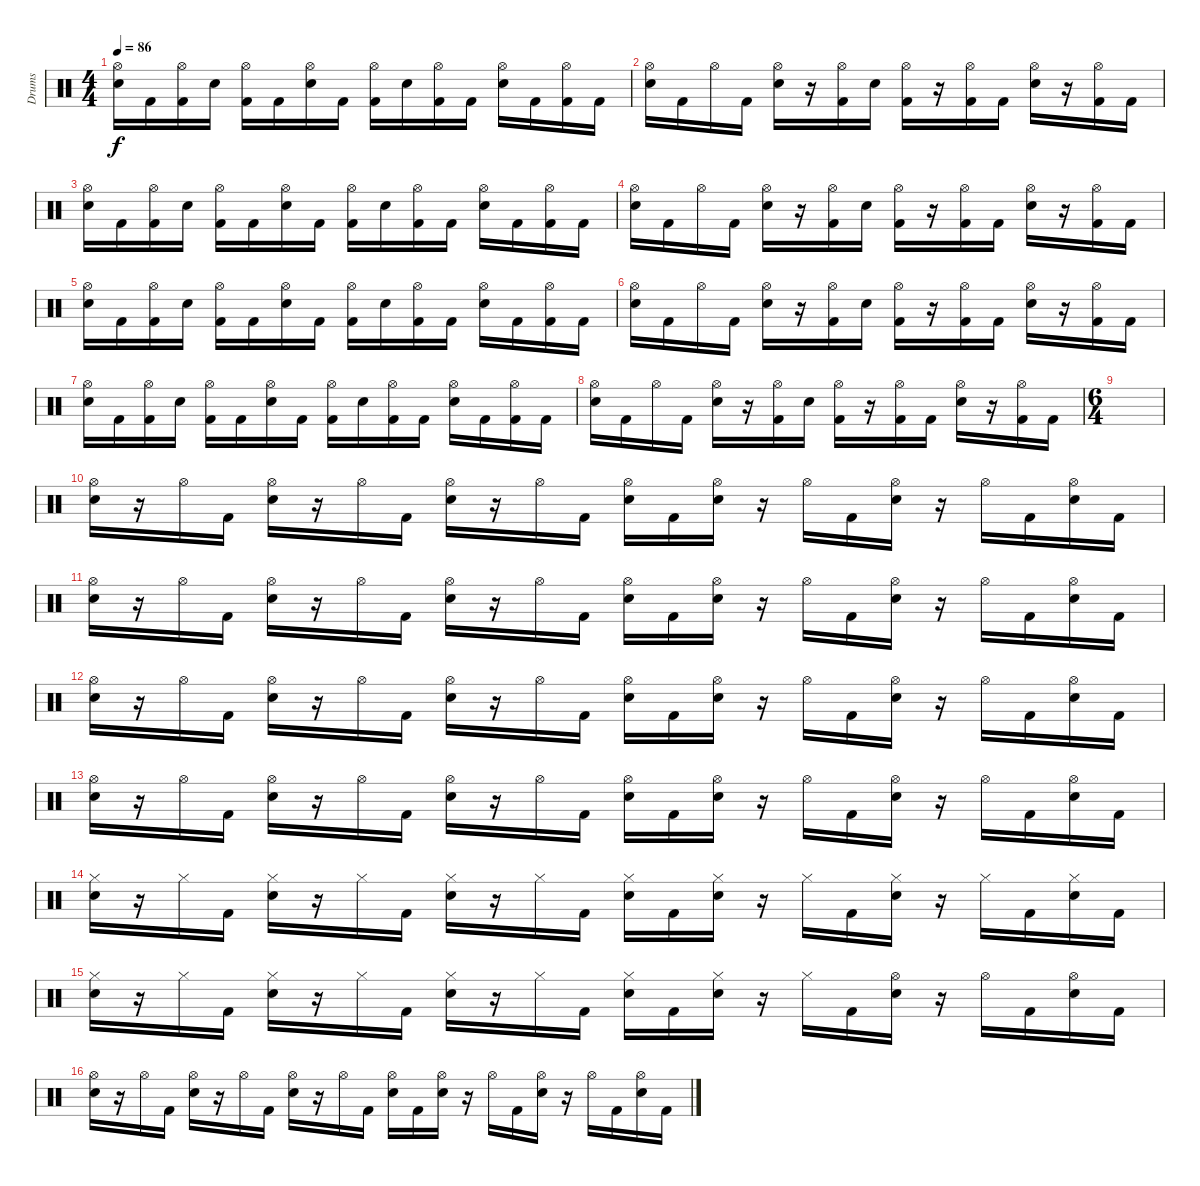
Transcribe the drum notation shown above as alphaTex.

\track ("Drums" "Drums") {instrument percussion}
\staff {score}
\articulation defaults
\ts (4 4)
\tempo 86
\clef neutral
\ks c
("Hi-Hat (open)" "Electric Snare (hit)").16{dy f} "Kick (hit) 2".16 ("Hi-Hat (open)" "Kick (hit) 2").16 "Electric Snare (hit)".16 ("Hi-Hat (open)" "Kick (hit) 2").16 "Kick (hit) 2".16 ("Hi-Hat (open)" "Electric Snare (hit)").16 "Kick (hit) 2".16 ("Hi-Hat (open)" "Kick (hit) 2").16 "Electric Snare (hit)".16 ("Hi-Hat (open)" "Kick (hit) 2").16 "Kick (hit) 2".16 ("Hi-Hat (open)" "Electric Snare (hit)").16 "Kick (hit) 2".16 ("Hi-Hat (open)" "Kick (hit) 2").16 "Kick (hit) 2".16 |
("Hi-Hat (open)" "Electric Snare (hit)").16 "Kick (hit) 2".16 "Hi-Hat (open)".16 "Kick (hit) 2".16 ("Hi-Hat (open)" "Electric Snare (hit)").16 r.16 ("Hi-Hat (open)" "Kick (hit) 2").16 "Electric Snare (hit)".16 ("Hi-Hat (open)" "Kick (hit) 2").16 r.16 ("Hi-Hat (open)" "Kick (hit) 2").16 "Kick (hit) 2".16 ("Hi-Hat (open)" "Electric Snare (hit)").16 r.16 ("Hi-Hat (open)" "Kick (hit) 2").16 "Kick (hit) 2".16 |
("Hi-Hat (open)" "Electric Snare (hit)").16 "Kick (hit) 2".16 ("Hi-Hat (open)" "Kick (hit) 2").16 "Electric Snare (hit)".16 ("Hi-Hat (open)" "Kick (hit) 2").16 "Kick (hit) 2".16 ("Hi-Hat (open)" "Electric Snare (hit)").16 "Kick (hit) 2".16 ("Hi-Hat (open)" "Kick (hit) 2").16 "Electric Snare (hit)".16 ("Hi-Hat (open)" "Kick (hit) 2").16 "Kick (hit) 2".16 ("Hi-Hat (open)" "Electric Snare (hit)").16 "Kick (hit) 2".16 ("Hi-Hat (open)" "Kick (hit) 2").16 "Kick (hit) 2".16 |
("Hi-Hat (open)" "Electric Snare (hit)").16 "Kick (hit) 2".16 "Hi-Hat (open)".16 "Kick (hit) 2".16 ("Hi-Hat (open)" "Electric Snare (hit)").16 r.16 ("Hi-Hat (open)" "Kick (hit) 2").16 "Electric Snare (hit)".16 ("Hi-Hat (open)" "Kick (hit) 2").16 r.16 ("Hi-Hat (open)" "Kick (hit) 2").16 "Kick (hit) 2".16 ("Hi-Hat (open)" "Electric Snare (hit)").16 r.16 ("Hi-Hat (open)" "Kick (hit) 2").16 "Kick (hit) 2".16 |
("Hi-Hat (open)" "Electric Snare (hit)").16 "Kick (hit) 2".16 ("Hi-Hat (open)" "Kick (hit) 2").16 "Electric Snare (hit)".16 ("Hi-Hat (open)" "Kick (hit) 2").16 "Kick (hit) 2".16 ("Hi-Hat (open)" "Electric Snare (hit)").16 "Kick (hit) 2".16 ("Hi-Hat (open)" "Kick (hit) 2").16 "Electric Snare (hit)".16 ("Hi-Hat (open)" "Kick (hit) 2").16 "Kick (hit) 2".16 ("Hi-Hat (open)" "Electric Snare (hit)").16 "Kick (hit) 2".16 ("Hi-Hat (open)" "Kick (hit) 2").16 "Kick (hit) 2".16 |
("Hi-Hat (open)" "Electric Snare (hit)").16 "Kick (hit) 2".16 "Hi-Hat (open)".16 "Kick (hit) 2".16 ("Hi-Hat (open)" "Electric Snare (hit)").16 r.16 ("Hi-Hat (open)" "Kick (hit) 2").16 "Electric Snare (hit)".16 ("Hi-Hat (open)" "Kick (hit) 2").16 r.16 ("Hi-Hat (open)" "Kick (hit) 2").16 "Kick (hit) 2".16 ("Hi-Hat (open)" "Electric Snare (hit)").16 r.16 ("Hi-Hat (open)" "Kick (hit) 2").16 "Kick (hit) 2".16 |
("Hi-Hat (open)" "Electric Snare (hit)").16 "Kick (hit) 2".16 ("Hi-Hat (open)" "Kick (hit) 2").16 "Electric Snare (hit)".16 ("Hi-Hat (open)" "Kick (hit) 2").16 "Kick (hit) 2".16 ("Hi-Hat (open)" "Electric Snare (hit)").16 "Kick (hit) 2".16 ("Hi-Hat (open)" "Kick (hit) 2").16 "Electric Snare (hit)".16 ("Hi-Hat (open)" "Kick (hit) 2").16 "Kick (hit) 2".16 ("Hi-Hat (open)" "Electric Snare (hit)").16 "Kick (hit) 2".16 ("Hi-Hat (open)" "Kick (hit) 2").16 "Kick (hit) 2".16 |
("Hi-Hat (open)" "Electric Snare (hit)").16 "Kick (hit) 2".16 "Hi-Hat (open)".16 "Kick (hit) 2".16 ("Hi-Hat (open)" "Electric Snare (hit)").16 r.16 ("Hi-Hat (open)" "Kick (hit) 2").16 "Electric Snare (hit)".16 ("Hi-Hat (open)" "Kick (hit) 2").16 r.16 ("Hi-Hat (open)" "Kick (hit) 2").16 "Kick (hit) 2".16 ("Hi-Hat (open)" "Electric Snare (hit)").16 r.16 ("Hi-Hat (open)" "Kick (hit) 2").16 "Kick (hit) 2".16 |
\ts (6 4)
|
("Hi-Hat (open)" "Electric Snare (hit)").16 r.16 "Hi-Hat (open)".16 "Kick (hit) 2".16 ("Hi-Hat (open)" "Electric Snare (hit)").16 r.16 "Hi-Hat (open)".16 "Kick (hit) 2".16 ("Hi-Hat (open)" "Electric Snare (hit)").16 r.16 "Hi-Hat (open)".16 "Kick (hit) 2".16 ("Hi-Hat (open)" "Electric Snare (hit)").16 "Kick (hit) 2".16 ("Hi-Hat (open)" "Electric Snare (hit)").16 r.16 "Hi-Hat (open)".16 "Kick (hit) 2".16 ("Hi-Hat (open)" "Electric Snare (hit)").16 r.16 "Hi-Hat (open)".16 "Kick (hit) 2".16 ("Hi-Hat (open)" "Electric Snare (hit)").16 "Kick (hit) 2".16 |
("Hi-Hat (open)" "Electric Snare (hit)").16 r.16 "Hi-Hat (open)".16 "Kick (hit) 2".16 ("Hi-Hat (open)" "Electric Snare (hit)").16 r.16 "Hi-Hat (open)".16 "Kick (hit) 2".16 ("Hi-Hat (open)" "Electric Snare (hit)").16 r.16 "Hi-Hat (open)".16 "Kick (hit) 2".16 ("Hi-Hat (open)" "Electric Snare (hit)").16 "Kick (hit) 2".16 ("Hi-Hat (open)" "Electric Snare (hit)").16 r.16 "Hi-Hat (open)".16 "Kick (hit) 2".16 ("Hi-Hat (open)" "Electric Snare (hit)").16 r.16 "Hi-Hat (open)".16 "Kick (hit) 2".16 ("Hi-Hat (open)" "Electric Snare (hit)").16 "Kick (hit) 2".16 |
("Hi-Hat (open)" "Electric Snare (hit)").16 r.16 "Hi-Hat (open)".16 "Kick (hit) 2".16 ("Hi-Hat (open)" "Electric Snare (hit)").16 r.16 "Hi-Hat (open)".16 "Kick (hit) 2".16 ("Hi-Hat (open)" "Electric Snare (hit)").16 r.16 "Hi-Hat (open)".16 "Kick (hit) 2".16 ("Hi-Hat (open)" "Electric Snare (hit)").16 "Kick (hit) 2".16 ("Hi-Hat (open)" "Electric Snare (hit)").16 r.16 "Hi-Hat (open)".16 "Kick (hit) 2".16 ("Hi-Hat (open)" "Electric Snare (hit)").16 r.16 "Hi-Hat (open)".16 "Kick (hit) 2".16 ("Hi-Hat (open)" "Electric Snare (hit)").16 "Kick (hit) 2".16 |
("Hi-Hat (open)" "Electric Snare (hit)").16 r.16 "Hi-Hat (open)".16 "Kick (hit) 2".16 ("Hi-Hat (open)" "Electric Snare (hit)").16 r.16 "Hi-Hat (open)".16 "Kick (hit) 2".16 ("Hi-Hat (open)" "Electric Snare (hit)").16 r.16 "Hi-Hat (open)".16 "Kick (hit) 2".16 ("Hi-Hat (open)" "Electric Snare (hit)").16 "Kick (hit) 2".16 ("Hi-Hat (open)" "Electric Snare (hit)").16 r.16 "Hi-Hat (open)".16 "Kick (hit) 2".16 ("Hi-Hat (open)" "Electric Snare (hit)").16 r.16 "Hi-Hat (open)".16 "Kick (hit) 2".16 ("Hi-Hat (open)" "Electric Snare (hit)").16 "Kick (hit) 2".16 |
("Hi-Hat (closed)" "Electric Snare (hit)").16 r.16 "Hi-Hat (closed)".16 "Kick (hit) 2".16 ("Hi-Hat (closed)" "Electric Snare (hit)").16 r.16 "Hi-Hat (closed)".16 "Kick (hit) 2".16 ("Hi-Hat (closed)" "Electric Snare (hit)").16 r.16 "Hi-Hat (closed)".16 "Kick (hit) 2".16 ("Hi-Hat (closed)" "Electric Snare (hit)").16 "Kick (hit) 2".16 ("Hi-Hat (closed)" "Electric Snare (hit)").16 r.16 "Hi-Hat (closed)".16 "Kick (hit) 2".16 ("Hi-Hat (closed)" "Electric Snare (hit)").16 r.16 "Hi-Hat (closed)".16 "Kick (hit) 2".16 ("Hi-Hat (closed)" "Electric Snare (hit)").16 "Kick (hit) 2".16 |
("Hi-Hat (closed)" "Electric Snare (hit)").16 r.16 "Hi-Hat (closed)".16 "Kick (hit) 2".16 ("Hi-Hat (closed)" "Electric Snare (hit)").16 r.16 "Hi-Hat (closed)".16 "Kick (hit) 2".16 ("Hi-Hat (closed)" "Electric Snare (hit)").16 r.16 "Hi-Hat (closed)".16 "Kick (hit) 2".16 ("Hi-Hat (closed)" "Electric Snare (hit)").16 "Kick (hit) 2".16 ("Hi-Hat (closed)" "Electric Snare (hit)").16 r.16 "Hi-Hat (closed)".16 "Kick (hit) 2".16 ("Hi-Hat (open)" "Electric Snare (hit)").16 r.16 "Hi-Hat (open)".16 "Kick (hit) 2".16 ("Hi-Hat (open)" "Electric Snare (hit)").16 "Kick (hit) 2".16 |
("Hi-Hat (open)" "Electric Snare (hit)").16 r.16 "Hi-Hat (open)".16 "Kick (hit) 2".16 ("Hi-Hat (open)" "Electric Snare (hit)").16 r.16 "Hi-Hat (open)".16 "Kick (hit) 2".16 ("Hi-Hat (open)" "Electric Snare (hit)").16 r.16 "Hi-Hat (open)".16 "Kick (hit) 2".16 ("Hi-Hat (open)" "Electric Snare (hit)").16 "Kick (hit) 2".16 ("Hi-Hat (open)" "Electric Snare (hit)").16 r.16 "Hi-Hat (open)".16 "Kick (hit) 2".16 ("Hi-Hat (open)" "Electric Snare (hit)").16 r.16 "Hi-Hat (open)".16 "Kick (hit) 2".16 ("Hi-Hat (open)" "Electric Snare (hit)").16 "Kick (hit) 2".16
